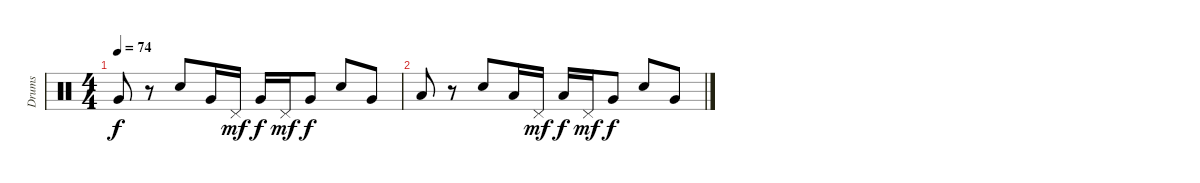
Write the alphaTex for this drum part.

\track ("Drums" "Drums") {instrument percussion}
\staff {score}
\articulation defaults
\ts (4 4)
\tempo 74
\clef neutral
\ks c "Very Low Tom (hit)".8{dy f}
r.8 "Electric Snare (hit)".8 "Very Low Tom (hit)".16 "Pedal Hi-Hat (hit)".16{dy mf} "Very Low Tom (hit)".16{dy f} "Pedal Hi-Hat (hit)".16{dy mf} "Very Low Tom (hit)".8{dy f} "Electric Snare (hit)".8 "Very Low Tom (hit)".8 |
"Low Floor Tom (hit)".8 r.8 "Electric Snare (hit)".8 "Low Floor Tom (hit)".16 "Pedal Hi-Hat (hit)".16{dy mf} "Low Floor Tom (hit)".16{dy f} "Pedal Hi-Hat (hit)".16{dy mf} "Very Low Tom (hit)".8{dy f} "Electric Snare (hit)".8 "Very Low Tom (hit)".8
